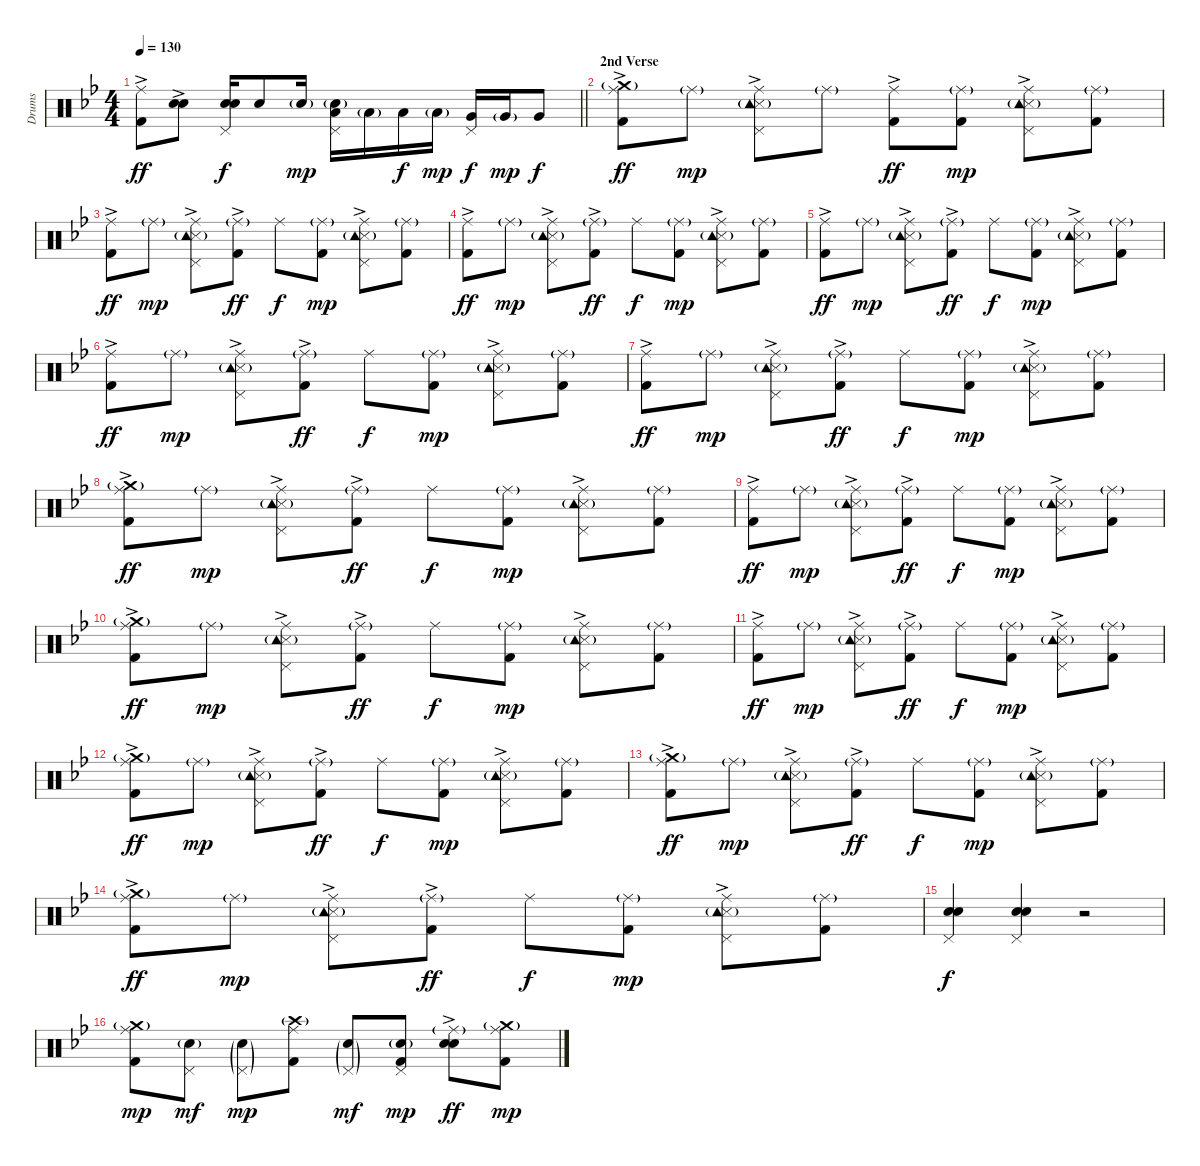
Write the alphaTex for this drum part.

\track ("Drums" "Drums") {instrument percussion}
\staff {score}
\articulation defaults
\ts (4 4)
\tempo 130
\clef neutral
\barLineRight lightlight
\ks bb
("Ride (middle)" "Kick (hit) 2"{ac}).8{dy ff} ("Electric Snare (hit)"{ac} "Snare (hit) 2").8 ("Pedal Hi-Hat (hit)" "Electric Snare (hit)" "Snare (hit) 2").16{dy f} "Electric Snare (hit)".8 "Electric Snare (hit)"{g}.16{dy mp} ("Pedal Hi-Hat (hit)" "Low Tom (hit)" "Electric Snare (hit)"{g}).16 "Low Tom (hit)"{g}.16 "Low Tom (hit)".16{dy f} "Low Tom (hit)"{g}.16{dy mp} ("Pedal Hi-Hat (hit)" "Very Low Tom (hit)").16{dy f} "Very Low Tom (hit)"{g}.16{dy mp} "Very Low Tom (hit)".8{dy f} |
\section ("" "2nd Verse")
("Ride (middle)" "Crash medium (hit)"{g} "Kick (hit) 2"{ac}).8{dy ff} "Ride (middle)"{g}.8{dy mp} ("Ride (middle)" "Pedal Hi-Hat (hit)" "Snare (side stick) 3"{ac} "Tambourine (hit)"{g}).8 "Ride (middle)"{g}.8 ("Ride (middle)" "Kick (hit) 2"{ac}).8{dy ff} ("Ride (middle)"{g} "Kick (hit) 2").8{dy mp} ("Ride (middle)" "Pedal Hi-Hat (hit)" "Snare (side stick) 3"{ac} "Tambourine (hit)"{g}).8 ("Ride (middle)"{g} "Kick (hit) 2").8 |
("Ride (middle)" "Kick (hit) 2"{ac}).8{dy ff} "Ride (middle)"{g}.8{dy mp} ("Ride (middle)" "Pedal Hi-Hat (hit)" "Snare (side stick) 3"{ac} "Tambourine (hit)"{g}).8 ("Ride (middle)"{g} "Kick (hit) 2"{ac}).8{dy ff} "Ride (middle)".8{dy f} ("Ride (middle)"{g} "Kick (hit) 2").8{dy mp} ("Ride (middle)" "Pedal Hi-Hat (hit)" "Snare (side stick) 3"{ac} "Tambourine (hit)"{g}).8 ("Ride (middle)"{g} "Kick (hit) 2").8 |
("Ride (middle)" "Kick (hit) 2"{ac}).8{dy ff} "Ride (middle)"{g}.8{dy mp} ("Ride (middle)" "Pedal Hi-Hat (hit)" "Snare (side stick) 3"{ac} "Tambourine (hit)"{g}).8 ("Ride (middle)"{g} "Kick (hit) 2"{ac}).8{dy ff} "Ride (middle)".8{dy f} ("Ride (middle)"{g} "Kick (hit) 2").8{dy mp} ("Ride (middle)" "Pedal Hi-Hat (hit)" "Snare (side stick) 3"{ac} "Tambourine (hit)"{g}).8 ("Ride (middle)"{g} "Kick (hit) 2").8 |
("Ride (middle)" "Kick (hit) 2"{ac}).8{dy ff} "Ride (middle)"{g}.8{dy mp} ("Ride (middle)" "Pedal Hi-Hat (hit)" "Snare (side stick) 3"{ac} "Tambourine (hit)"{g}).8 ("Ride (middle)"{g} "Kick (hit) 2"{ac}).8{dy ff} "Ride (middle)".8{dy f} ("Ride (middle)"{g} "Kick (hit) 2").8{dy mp} ("Ride (middle)" "Pedal Hi-Hat (hit)" "Snare (side stick) 3"{ac} "Tambourine (hit)"{g}).8 ("Ride (middle)"{g} "Kick (hit) 2").8 |
("Ride (middle)" "Kick (hit) 2"{ac}).8{dy ff} "Ride (middle)"{g}.8{dy mp} ("Ride (middle)" "Pedal Hi-Hat (hit)" "Snare (side stick) 3"{ac} "Tambourine (hit)"{g}).8 ("Ride (middle)"{g} "Kick (hit) 2"{ac}).8{dy ff} "Ride (middle)".8{dy f} ("Ride (middle)"{g} "Kick (hit) 2").8{dy mp} ("Ride (middle)" "Pedal Hi-Hat (hit)" "Snare (side stick) 3"{ac} "Tambourine (hit)"{g}).8 ("Ride (middle)"{g} "Kick (hit) 2").8 |
("Ride (middle)" "Kick (hit) 2"{ac}).8{dy ff} "Ride (middle)"{g}.8{dy mp} ("Ride (middle)" "Pedal Hi-Hat (hit)" "Snare (side stick) 3"{ac} "Tambourine (hit)"{g}).8 ("Ride (middle)"{g} "Kick (hit) 2"{ac}).8{dy ff} "Ride (middle)".8{dy f} ("Ride (middle)"{g} "Kick (hit) 2").8{dy mp} ("Ride (middle)" "Pedal Hi-Hat (hit)" "Snare (side stick) 3"{ac} "Tambourine (hit)"{g}).8 ("Ride (middle)"{g} "Kick (hit) 2").8 |
("Ride (middle)" "Crash medium (hit)"{g} "Kick (hit) 2"{ac}).8{dy ff} "Ride (middle)"{g}.8{dy mp} ("Ride (middle)" "Pedal Hi-Hat (hit)" "Snare (side stick) 3"{ac} "Tambourine (hit)"{g}).8 ("Ride (middle)"{g} "Kick (hit) 2"{ac}).8{dy ff} "Ride (middle)".8{dy f} ("Ride (middle)"{g} "Kick (hit) 2").8{dy mp} ("Ride (middle)" "Pedal Hi-Hat (hit)" "Snare (side stick) 3"{ac} "Tambourine (hit)"{g}).8 ("Ride (middle)"{g} "Kick (hit) 2").8 |
("Ride (middle)" "Kick (hit) 2"{ac}).8{dy ff} "Ride (middle)"{g}.8{dy mp} ("Ride (middle)" "Pedal Hi-Hat (hit)" "Snare (side stick) 3"{ac} "Tambourine (hit)"{g}).8 ("Ride (middle)"{g} "Kick (hit) 2"{ac}).8{dy ff} "Ride (middle)".8{dy f} ("Ride (middle)"{g} "Kick (hit) 2").8{dy mp} ("Ride (middle)" "Pedal Hi-Hat (hit)" "Snare (side stick) 3"{ac} "Tambourine (hit)"{g}).8 ("Ride (middle)"{g} "Kick (hit) 2").8 |
("Ride (middle)" "Crash medium (hit)"{g} "Kick (hit) 2"{ac}).8{dy ff} "Ride (middle)"{g}.8{dy mp} ("Ride (middle)" "Pedal Hi-Hat (hit)" "Snare (side stick) 3"{ac} "Tambourine (hit)"{g}).8 ("Ride (middle)"{g} "Kick (hit) 2"{ac}).8{dy ff} "Ride (middle)".8{dy f} ("Ride (middle)"{g} "Kick (hit) 2").8{dy mp} ("Ride (middle)" "Pedal Hi-Hat (hit)" "Snare (side stick) 3"{ac} "Tambourine (hit)"{g}).8 ("Ride (middle)"{g} "Kick (hit) 2").8 |
("Ride (middle)" "Kick (hit) 2"{ac}).8{dy ff} "Ride (middle)"{g}.8{dy mp} ("Ride (middle)" "Pedal Hi-Hat (hit)" "Snare (side stick) 3"{ac} "Tambourine (hit)"{g}).8 ("Ride (middle)"{g} "Kick (hit) 2"{ac}).8{dy ff} "Ride (middle)".8{dy f} ("Ride (middle)"{g} "Kick (hit) 2").8{dy mp} ("Ride (middle)" "Pedal Hi-Hat (hit)" "Snare (side stick) 3"{ac} "Tambourine (hit)"{g}).8 ("Ride (middle)"{g} "Kick (hit) 2").8 |
("Ride (middle)" "Crash medium (hit)"{g} "Kick (hit) 2"{ac}).8{dy ff} "Ride (middle)"{g}.8{dy mp} ("Ride (middle)" "Pedal Hi-Hat (hit)" "Snare (side stick) 3"{ac} "Tambourine (hit)"{g}).8 ("Ride (middle)"{g} "Kick (hit) 2"{ac}).8{dy ff} "Ride (middle)".8{dy f} ("Ride (middle)"{g} "Kick (hit) 2").8{dy mp} ("Ride (middle)" "Pedal Hi-Hat (hit)" "Snare (side stick) 3"{ac} "Tambourine (hit)"{g}).8 ("Ride (middle)"{g} "Kick (hit) 2").8 |
("Ride (middle)" "Crash medium (hit)"{g} "Kick (hit) 2"{ac}).8{dy ff} "Ride (middle)"{g}.8{dy mp} ("Ride (middle)" "Pedal Hi-Hat (hit)" "Snare (side stick) 3"{ac} "Tambourine (hit)"{g}).8 ("Ride (middle)"{g} "Kick (hit) 2"{ac}).8{dy ff} "Ride (middle)".8{dy f} ("Ride (middle)"{g} "Kick (hit) 2").8{dy mp} ("Ride (middle)" "Pedal Hi-Hat (hit)" "Snare (side stick) 3"{ac} "Tambourine (hit)"{g}).8 ("Ride (middle)"{g} "Kick (hit) 2").8 |
("Ride (middle)" "Crash medium (hit)"{g} "Kick (hit) 2"{ac}).8{dy ff} "Ride (middle)"{g}.8{dy mp} ("Ride (middle)" "Pedal Hi-Hat (hit)" "Snare (side stick) 3"{ac} "Tambourine (hit)"{g}).8 ("Ride (middle)"{g} "Kick (hit) 2"{ac}).8{dy ff} "Ride (middle)".8{dy f} ("Ride (middle)"{g} "Kick (hit) 2").8{dy mp} ("Ride (middle)" "Pedal Hi-Hat (hit)" "Snare (side stick) 3"{ac} "Tambourine (hit)"{g}).8 ("Ride (middle)"{g} "Kick (hit) 2").8 |
("Pedal Hi-Hat (hit)" "Electric Snare (hit)" "Snare (hit) 2").4{dy f} ("Pedal Hi-Hat (hit)" "Electric Snare (hit)" "Snare (hit) 2").4 r.2 |
("Ride (middle)" "Crash medium (hit)"{g} "Kick (hit) 2").8{dy mp} ("Pedal Hi-Hat (hit)" "Electric Snare (hit)"{g}).8{dy mf} ("Pedal Hi-Hat (hit)"{g} "Electric Snare (hit)"{g}).8{dy mp} ("Ride (middle)" "Crash high (hit)"{g} "Kick (hit) 2").8 ("Pedal Hi-Hat (hit)"{g} "Electric Snare (hit)"{g}).8{dy mf} ("Pedal Hi-Hat (hit)" "Electric Snare (hit)"{g} "Kick (hit) 2").8{dy mp} ("Ride (middle)"{g} "Electric Snare (hit)" "Snare (hit) 2"{ac}).8{dy ff} ("Ride (middle)" "Crash medium (hit)"{g} "Kick (hit) 2").8{dy mp}
